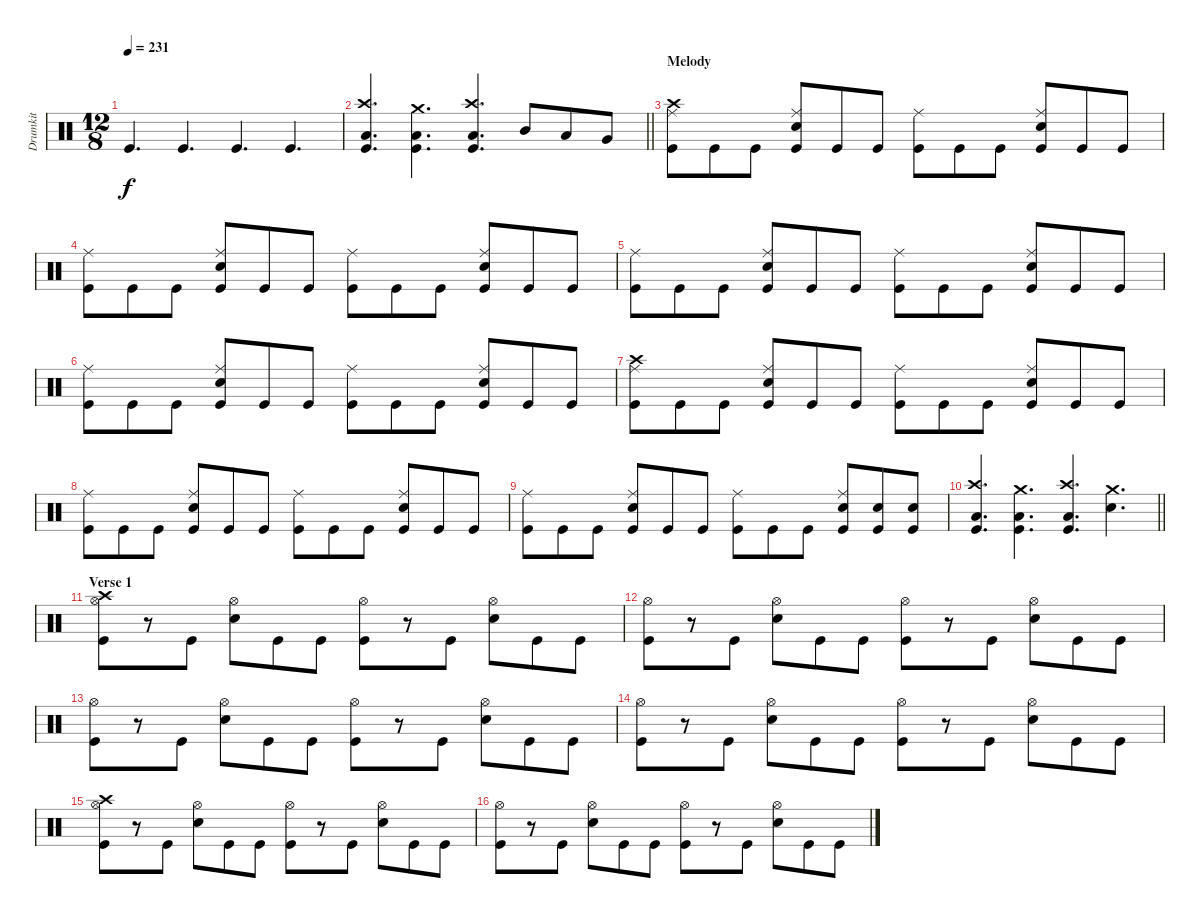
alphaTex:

\track ("Drumkit" "Drumkit") {instrument percussion}
\staff {score}
\articulation defaults
\ts (12 8)
\tempo 231
\clef neutral
\ks c "Kick (hit)".4{d dy f} "Kick (hit)".4{d} "Kick (hit)".4{d} "Kick (hit)".4{d}
|
\barLineRight lightlight
("Crash high (hit)" "Low Floor Tom (hit)" "Kick (hit)").4{d} ("Crash medium (hit)" "Low Floor Tom (hit)" "Kick (hit)").4{d} ("Crash high (hit)" "Low Floor Tom (hit)" "Kick (hit)").4{d} "Mid Tom (hit)".8 "Low Tom (hit)".8 "Very Low Tom (hit)".8 |
\section ("" "Melody")
("Crash high (hit)" "Ride (middle)" "Kick (hit)").8 "Kick (hit)".8 "Kick (hit)".8 ("Ride (middle)" "Snare (hit) 2" "Kick (hit)").8 "Kick (hit)".8 "Kick (hit)".8 ("Ride (middle)" "Kick (hit)").8 "Kick (hit)".8 "Kick (hit)".8 ("Ride (middle)" "Snare (hit) 2" "Kick (hit)").8 "Kick (hit)".8 "Kick (hit)".8 |
("Ride (middle)" "Kick (hit)").8 "Kick (hit)".8 "Kick (hit)".8 ("Ride (middle)" "Snare (hit) 2" "Kick (hit)").8 "Kick (hit)".8 "Kick (hit)".8 ("Ride (middle)" "Kick (hit)").8 "Kick (hit)".8 "Kick (hit)".8 ("Ride (middle)" "Snare (hit) 2" "Kick (hit)").8 "Kick (hit)".8 "Kick (hit)".8 |
("Ride (middle)" "Kick (hit)").8 "Kick (hit)".8 "Kick (hit)".8 ("Ride (middle)" "Snare (hit) 2" "Kick (hit)").8 "Kick (hit)".8 "Kick (hit)".8 ("Ride (middle)" "Kick (hit)").8 "Kick (hit)".8 "Kick (hit)".8 ("Ride (middle)" "Snare (hit) 2" "Kick (hit)").8 "Kick (hit)".8 "Kick (hit)".8 |
("Ride (middle)" "Kick (hit)").8 "Kick (hit)".8 "Kick (hit)".8 ("Ride (middle)" "Snare (hit) 2" "Kick (hit)").8 "Kick (hit)".8 "Kick (hit)".8 ("Ride (middle)" "Kick (hit)").8 "Kick (hit)".8 "Kick (hit)".8 ("Ride (middle)" "Snare (hit) 2" "Kick (hit)").8 "Kick (hit)".8 "Kick (hit)".8 |
("Crash high (hit)" "Ride (middle)" "Kick (hit)").8 "Kick (hit)".8 "Kick (hit)".8 ("Ride (middle)" "Snare (hit) 2" "Kick (hit)").8 "Kick (hit)".8 "Kick (hit)".8 ("Ride (middle)" "Kick (hit)").8 "Kick (hit)".8 "Kick (hit)".8 ("Ride (middle)" "Snare (hit) 2" "Kick (hit)").8 "Kick (hit)".8 "Kick (hit)".8 |
("Ride (middle)" "Kick (hit)").8 "Kick (hit)".8 "Kick (hit)".8 ("Ride (middle)" "Snare (hit) 2" "Kick (hit)").8 "Kick (hit)".8 "Kick (hit)".8 ("Ride (middle)" "Kick (hit)").8 "Kick (hit)".8 "Kick (hit)".8 ("Ride (middle)" "Snare (hit) 2" "Kick (hit)").8 "Kick (hit)".8 "Kick (hit)".8 |
("Ride (middle)" "Kick (hit)").8 "Kick (hit)".8 "Kick (hit)".8 ("Ride (middle)" "Snare (hit) 2" "Kick (hit)").8 "Kick (hit)".8 "Kick (hit)".8 ("Ride (middle)" "Kick (hit)").8 "Kick (hit)".8 "Kick (hit)".8 ("Ride (middle)" "Snare (hit) 2" "Kick (hit)").8 ("Snare (hit) 2" "Kick (hit)").8 ("Snare (hit) 2" "Kick (hit)").8 |
\barLineRight lightlight
("Crash high (hit)" "Low Floor Tom (hit)" "Kick (hit)").4{d} ("Crash medium (hit)" "Low Floor Tom (hit)" "Kick (hit)").4{d} ("Crash high (hit)" "Low Floor Tom (hit)" "Kick (hit)").4{d} ("Crash medium (hit)" "Snare (hit) 2").4{d} |
\section ("" "Verse 1")
("Crash high (hit)" "Hi-Hat (open)" "Kick (hit)").8 r.8 "Kick (hit)".8 ("Hi-Hat (open)" "Snare (hit) 2").8 "Kick (hit)".8 "Kick (hit)".8 ("Hi-Hat (open)" "Kick (hit)").8 r.8 "Kick (hit)".8 ("Hi-Hat (open)" "Snare (hit) 2").8 "Kick (hit)".8 "Kick (hit)".8 |
("Hi-Hat (open)" "Kick (hit)").8 r.8 "Kick (hit)".8 ("Hi-Hat (open)" "Snare (hit) 2").8 "Kick (hit)".8 "Kick (hit)".8 ("Hi-Hat (open)" "Kick (hit)").8 r.8 "Kick (hit)".8 ("Hi-Hat (open)" "Snare (hit) 2").8 "Kick (hit)".8 "Kick (hit)".8 |
("Hi-Hat (open)" "Kick (hit)").8 r.8 "Kick (hit)".8 ("Hi-Hat (open)" "Snare (hit) 2").8 "Kick (hit)".8 "Kick (hit)".8 ("Hi-Hat (open)" "Kick (hit)").8 r.8 "Kick (hit)".8 ("Hi-Hat (open)" "Snare (hit) 2").8 "Kick (hit)".8 "Kick (hit)".8 |
("Hi-Hat (open)" "Kick (hit)").8 r.8 "Kick (hit)".8 ("Hi-Hat (open)" "Snare (hit) 2").8 "Kick (hit)".8 "Kick (hit)".8 ("Hi-Hat (open)" "Kick (hit)").8 r.8 "Kick (hit)".8 ("Hi-Hat (open)" "Snare (hit) 2").8 "Kick (hit)".8 "Kick (hit)".8 |
("Crash high (hit)" "Hi-Hat (open)" "Kick (hit)").8 r.8 "Kick (hit)".8 ("Hi-Hat (open)" "Snare (hit) 2").8 "Kick (hit)".8 "Kick (hit)".8 ("Hi-Hat (open)" "Kick (hit)").8 r.8 "Kick (hit)".8 ("Hi-Hat (open)" "Snare (hit) 2").8 "Kick (hit)".8 "Kick (hit)".8 |
("Hi-Hat (open)" "Kick (hit)").8 r.8 "Kick (hit)".8 ("Hi-Hat (open)" "Snare (hit) 2").8 "Kick (hit)".8 "Kick (hit)".8 ("Hi-Hat (open)" "Kick (hit)").8 r.8 "Kick (hit)".8 ("Hi-Hat (open)" "Snare (hit) 2").8 "Kick (hit)".8 "Kick (hit)".8
